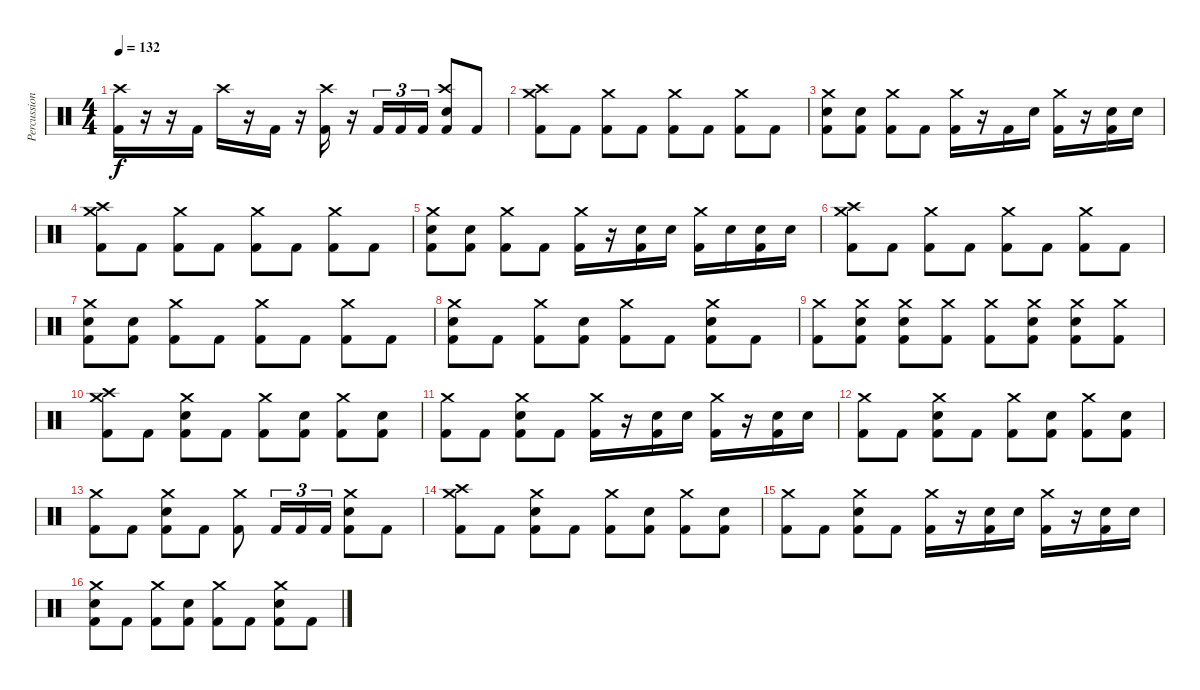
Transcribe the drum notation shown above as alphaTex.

\track ("Percussion" "Percussion") {instrument percussion}
\staff {score}
\articulation defaults
\ts (4 4)
\tempo 132
\clef neutral
\ks c
("Kick (hit) 2" "Crash high (hit)").16{dy f} r.16 r.16 "Kick (hit) 2".16 "Crash high (hit)".16 r.16 "Kick (hit) 2".16 r.16 ("Kick (hit) 2" "Crash high (hit)").16 r.16 "Kick (hit) 2".16{tu (3 2)} "Kick (hit) 2".16{tu (3 2)} "Kick (hit) 2".16{tu (3 2)} ("Kick (hit) 2" "Snare (hit) 2" "Crash high (hit)").8 "Kick (hit) 2".8 |
("Kick (hit) 2" "Crash high (hit)" "Crash medium (hit)").8 "Kick (hit) 2".8 ("Kick (hit) 2" "Crash medium (hit)").8 "Kick (hit) 2".8 ("Kick (hit) 2" "Crash medium (hit)").8 "Kick (hit) 2".8 ("Kick (hit) 2" "Crash medium (hit)").8 "Kick (hit) 2".8 |
("Kick (hit) 2" "Snare (hit) 2" "Crash medium (hit)").8 ("Kick (hit) 2" "Snare (hit) 2").8 ("Kick (hit) 2" "Crash medium (hit)").8 "Kick (hit) 2".8 ("Kick (hit) 2" "Crash medium (hit)").16 r.16 "Kick (hit) 2".16 "Snare (hit) 2".16 ("Kick (hit) 2" "Crash medium (hit)").16 r.16 ("Kick (hit) 2" "Snare (hit) 2").16 "Snare (hit) 2".16 |
("Kick (hit) 2" "Crash high (hit)" "Crash medium (hit)").8 "Kick (hit) 2".8 ("Kick (hit) 2" "Crash medium (hit)").8 "Kick (hit) 2".8 ("Kick (hit) 2" "Crash medium (hit)").8 "Kick (hit) 2".8 ("Kick (hit) 2" "Crash medium (hit)").8 "Kick (hit) 2".8 |
("Kick (hit) 2" "Snare (hit) 2" "Crash medium (hit)").8 ("Kick (hit) 2" "Snare (hit) 2").8 ("Kick (hit) 2" "Crash medium (hit)").8 "Kick (hit) 2".8 ("Kick (hit) 2" "Crash medium (hit)").16 r.16 ("Kick (hit) 2" "Snare (hit) 2").16 "Snare (hit) 2".16 ("Kick (hit) 2" "Crash medium (hit)").16 "Snare (hit) 2".16 ("Kick (hit) 2" "Snare (hit) 2").16 "Snare (hit) 2".16 |
("Kick (hit) 2" "Crash high (hit)" "Crash medium (hit)").8 "Kick (hit) 2".8 ("Kick (hit) 2" "Crash medium (hit)").8 "Kick (hit) 2".8 ("Kick (hit) 2" "Crash medium (hit)").8 "Kick (hit) 2".8 ("Kick (hit) 2" "Crash medium (hit)").8 "Kick (hit) 2".8 |
("Kick (hit) 2" "Snare (hit) 2" "Crash medium (hit)").8 ("Kick (hit) 2" "Snare (hit) 2").8 ("Kick (hit) 2" "Crash medium (hit)").8 "Kick (hit) 2".8 ("Kick (hit) 2" "Crash medium (hit)").8 "Kick (hit) 2".8 ("Kick (hit) 2" "Crash medium (hit)").8 "Kick (hit) 2".8 |
("Kick (hit) 2" "Snare (hit) 2" "Crash medium (hit)").8 "Kick (hit) 2".8 ("Kick (hit) 2" "Crash medium (hit)").8 ("Kick (hit) 2" "Snare (hit) 2").8 ("Kick (hit) 2" "Crash medium (hit)").8 "Kick (hit) 2".8 ("Kick (hit) 2" "Snare (hit) 2" "Crash medium (hit)").8 "Kick (hit) 2".8 |
("Kick (hit) 2" "Crash medium (hit)").8 ("Kick (hit) 2" "Snare (hit) 2" "Crash medium (hit)").8 ("Kick (hit) 2" "Snare (hit) 2" "Crash medium (hit)").8 ("Kick (hit) 2" "Crash medium (hit)").8 ("Kick (hit) 2" "Crash medium (hit)").8 ("Kick (hit) 2" "Snare (hit) 2" "Crash medium (hit)").8 ("Kick (hit) 2" "Snare (hit) 2" "Crash medium (hit)").8 ("Kick (hit) 2" "Crash medium (hit)").8 |
("Kick (hit) 2" "Crash high (hit)" "Crash medium (hit)").8 "Kick (hit) 2".8 ("Kick (hit) 2" "Snare (hit) 2" "Crash medium (hit)").8 "Kick (hit) 2".8 ("Kick (hit) 2" "Crash medium (hit)").8 ("Kick (hit) 2" "Snare (hit) 2").8 ("Kick (hit) 2" "Crash medium (hit)").8 ("Kick (hit) 2" "Snare (hit) 2").8 |
("Kick (hit) 2" "Crash medium (hit)").8 "Kick (hit) 2".8 ("Kick (hit) 2" "Snare (hit) 2" "Crash medium (hit)").8 "Kick (hit) 2".8 ("Kick (hit) 2" "Crash medium (hit)").16 r.16 ("Kick (hit) 2" "Snare (hit) 2").16 "Snare (hit) 2".16 ("Kick (hit) 2" "Crash medium (hit)").16 r.16 ("Kick (hit) 2" "Snare (hit) 2").16 "Snare (hit) 2".16 |
("Kick (hit) 2" "Crash medium (hit)").8 "Kick (hit) 2".8 ("Kick (hit) 2" "Snare (hit) 2" "Crash medium (hit)").8 "Kick (hit) 2".8 ("Kick (hit) 2" "Crash medium (hit)").8 ("Kick (hit) 2" "Snare (hit) 2").8 ("Kick (hit) 2" "Crash medium (hit)").8 ("Kick (hit) 2" "Snare (hit) 2").8 |
("Kick (hit) 2" "Crash medium (hit)").8 "Kick (hit) 2".8 ("Kick (hit) 2" "Snare (hit) 2" "Crash medium (hit)").8 "Kick (hit) 2".8 ("Kick (hit) 2" "Crash medium (hit)").8 "Kick (hit) 2".16{tu (3 2)} "Kick (hit) 2".16{tu (3 2)} "Kick (hit) 2".16{tu (3 2)} ("Kick (hit) 2" "Snare (hit) 2" "Crash medium (hit)").8 "Kick (hit) 2".8 |
("Kick (hit) 2" "Crash high (hit)" "Crash medium (hit)").8 "Kick (hit) 2".8 ("Kick (hit) 2" "Snare (hit) 2" "Crash medium (hit)").8 "Kick (hit) 2".8 ("Kick (hit) 2" "Crash medium (hit)").8 ("Kick (hit) 2" "Snare (hit) 2").8 ("Kick (hit) 2" "Crash medium (hit)").8 ("Kick (hit) 2" "Snare (hit) 2").8 |
("Kick (hit) 2" "Crash medium (hit)").8 "Kick (hit) 2".8 ("Kick (hit) 2" "Snare (hit) 2" "Crash medium (hit)").8 "Kick (hit) 2".8 ("Kick (hit) 2" "Crash medium (hit)").16 r.16 ("Kick (hit) 2" "Snare (hit) 2").16 "Snare (hit) 2".16 ("Kick (hit) 2" "Crash medium (hit)").16 r.16 ("Kick (hit) 2" "Snare (hit) 2").16 "Snare (hit) 2".16 |
("Kick (hit) 2" "Snare (hit) 2" "Crash medium (hit)").8 "Kick (hit) 2".8 ("Kick (hit) 2" "Crash medium (hit)").8 ("Kick (hit) 2" "Snare (hit) 2").8 ("Kick (hit) 2" "Crash medium (hit)").8 "Kick (hit) 2".8 ("Kick (hit) 2" "Snare (hit) 2" "Crash medium (hit)").8 "Kick (hit) 2".8
